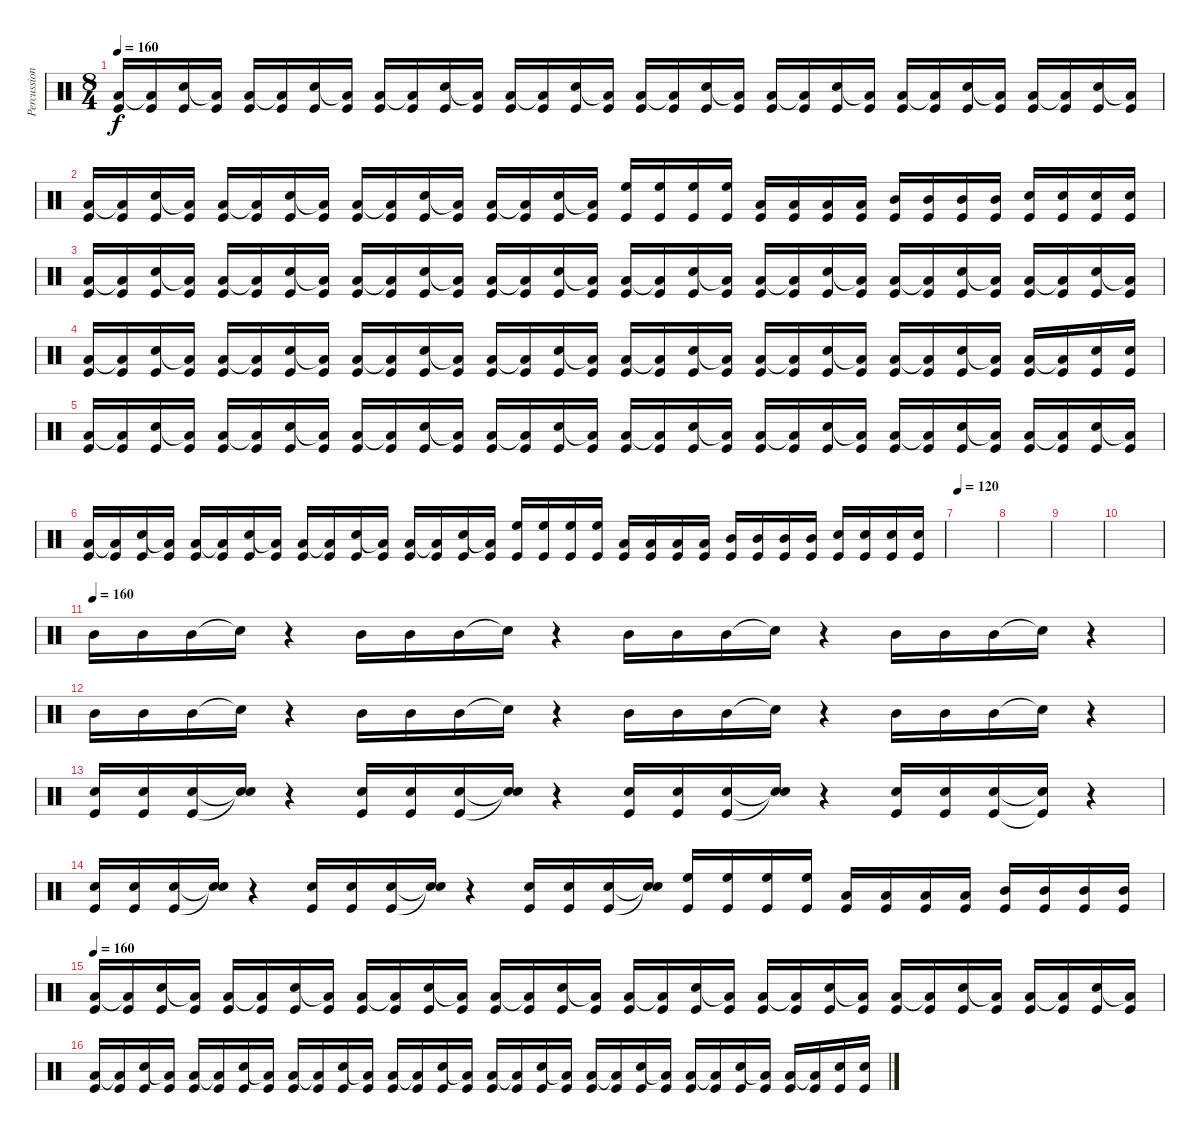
\track ("Percussioni" "Percussion") {instrument percussion}
\staff {score}
\articulation defaults
\ts (8 4)
\tempo 160
\clef neutral
\ks c
("Low Tom (hit)" "Kick (hit)").16{dy f} ("Low Tom (hit)"{t} "Kick (hit)").16 ("Snare (hit) 2" "Kick (hit)").16 ("Low Tom (hit)"{t} "Kick (hit)").16 ("Low Tom (hit)" "Kick (hit)").16 ("Low Tom (hit)"{t} "Kick (hit)").16 ("Snare (hit) 2" "Kick (hit)").16 ("Low Tom (hit)"{t} "Kick (hit)").16 ("Low Tom (hit)" "Kick (hit)").16 ("Low Tom (hit)"{t} "Kick (hit)").16 ("Snare (hit) 2" "Kick (hit)").16 ("Low Tom (hit)"{t} "Kick (hit)").16 ("Low Tom (hit)" "Kick (hit)").16 ("Low Tom (hit)"{t} "Kick (hit)").16 ("Snare (hit) 2" "Kick (hit)").16 ("Low Tom (hit)"{t} "Kick (hit)").16 ("Low Tom (hit)" "Kick (hit)").16 ("Low Tom (hit)"{t} "Kick (hit)").16 ("Snare (hit) 2" "Kick (hit)").16 ("Low Tom (hit)"{t} "Kick (hit)").16 ("Low Tom (hit)" "Kick (hit)").16 ("Low Tom (hit)"{t} "Kick (hit)").16 ("Snare (hit) 2" "Kick (hit)").16 ("Low Tom (hit)"{t} "Kick (hit)").16 ("Low Tom (hit)" "Kick (hit)").16 ("Low Tom (hit)"{t} "Kick (hit)").16 ("Snare (hit) 2" "Kick (hit)").16 ("Low Tom (hit)"{t} "Kick (hit)").16 ("Low Tom (hit)" "Kick (hit)").16 ("Low Tom (hit)"{t} "Kick (hit)").16 ("Snare (hit) 2" "Kick (hit)").16 ("Low Tom (hit)"{t} "Kick (hit)").16 |
("Low Tom (hit)" "Kick (hit)").16 ("Low Tom (hit)"{t} "Kick (hit)").16 ("Snare (hit) 2" "Kick (hit)").16 ("Low Tom (hit)"{t} "Kick (hit)").16 ("Low Tom (hit)" "Kick (hit)").16 ("Low Tom (hit)"{t} "Kick (hit)").16 ("Snare (hit) 2" "Kick (hit)").16 ("Low Tom (hit)"{t} "Kick (hit)").16 ("Low Tom (hit)" "Kick (hit)").16 ("Low Tom (hit)"{t} "Kick (hit)").16 ("Snare (hit) 2" "Kick (hit)").16 ("Low Tom (hit)"{t} "Kick (hit)").16 ("Low Tom (hit)" "Kick (hit)").16 ("Low Tom (hit)"{t} "Kick (hit)").16 ("Snare (hit) 2" "Kick (hit)").16 ("Low Tom (hit)"{t} "Kick (hit)").16 ("High Floor Tom (hit)" "Kick (hit)").16 ("High Floor Tom (hit)" "Kick (hit)").16 ("High Floor Tom (hit)" "Kick (hit)").16 ("High Floor Tom (hit)" "Kick (hit)").16 ("Low Tom (hit)" "Kick (hit)").16 ("Low Tom (hit)" "Kick (hit)").16 ("Low Tom (hit)" "Kick (hit)").16 ("Low Tom (hit)" "Kick (hit)").16 ("Mid Tom (hit)" "Kick (hit)").16 ("Mid Tom (hit)" "Kick (hit)").16 ("Mid Tom (hit)" "Kick (hit)").16 ("Mid Tom (hit)" "Kick (hit)").16 ("Snare (hit) 2" "Kick (hit)").16 ("Snare (hit) 2" "Kick (hit)").16 ("Snare (hit) 2" "Kick (hit)").16 ("Snare (hit) 2" "Kick (hit)").16 |
("Low Tom (hit)" "Kick (hit)").16 ("Low Tom (hit)"{t} "Kick (hit)").16 ("Snare (hit) 2" "Kick (hit)").16 ("Low Tom (hit)"{t} "Kick (hit)").16 ("Low Tom (hit)" "Kick (hit)").16 ("Low Tom (hit)"{t} "Kick (hit)").16 ("Snare (hit) 2" "Kick (hit)").16 ("Low Tom (hit)"{t} "Kick (hit)").16 ("Low Tom (hit)" "Kick (hit)").16 ("Low Tom (hit)"{t} "Kick (hit)").16 ("Snare (hit) 2" "Kick (hit)").16 ("Low Tom (hit)"{t} "Kick (hit)").16 ("Low Tom (hit)" "Kick (hit)").16 ("Low Tom (hit)"{t} "Kick (hit)").16 ("Snare (hit) 2" "Kick (hit)").16 ("Low Tom (hit)"{t} "Kick (hit)").16 ("Low Tom (hit)" "Kick (hit)").16 ("Low Tom (hit)"{t} "Kick (hit)").16 ("Snare (hit) 2" "Kick (hit)").16 ("Low Tom (hit)"{t} "Kick (hit)").16 ("Low Tom (hit)" "Kick (hit)").16 ("Low Tom (hit)"{t} "Kick (hit)").16 ("Snare (hit) 2" "Kick (hit)").16 ("Low Tom (hit)"{t} "Kick (hit)").16 ("Low Tom (hit)" "Kick (hit)").16 ("Low Tom (hit)"{t} "Kick (hit)").16 ("Snare (hit) 2" "Kick (hit)").16 ("Low Tom (hit)"{t} "Kick (hit)").16 ("Low Tom (hit)" "Kick (hit)").16 ("Low Tom (hit)"{t} "Kick (hit)").16 ("Snare (hit) 2" "Kick (hit)").16 ("Low Tom (hit)"{t} "Kick (hit)").16 |
("Low Tom (hit)" "Kick (hit)").16 ("Low Tom (hit)"{t} "Kick (hit)").16 ("Snare (hit) 2" "Kick (hit)").16 ("Low Tom (hit)"{t} "Kick (hit)").16 ("Low Tom (hit)" "Kick (hit)").16 ("Low Tom (hit)"{t} "Kick (hit)").16 ("Snare (hit) 2" "Kick (hit)").16 ("Low Tom (hit)"{t} "Kick (hit)").16 ("Low Tom (hit)" "Kick (hit)").16 ("Low Tom (hit)"{t} "Kick (hit)").16 ("Snare (hit) 2" "Kick (hit)").16 ("Low Tom (hit)"{t} "Kick (hit)").16 ("Low Tom (hit)" "Kick (hit)").16 ("Low Tom (hit)"{t} "Kick (hit)").16 ("Snare (hit) 2" "Kick (hit)").16 ("Low Tom (hit)"{t} "Kick (hit)").16 ("Low Tom (hit)" "Kick (hit)").16 ("Low Tom (hit)"{t} "Kick (hit)").16 ("Snare (hit) 2" "Kick (hit)").16 ("Low Tom (hit)"{t} "Kick (hit)").16 ("Low Tom (hit)" "Kick (hit)").16 ("Low Tom (hit)"{t} "Kick (hit)").16 ("Snare (hit) 2" "Kick (hit)").16 ("Low Tom (hit)"{t} "Kick (hit)").16 ("Low Tom (hit)" "Kick (hit)").16 ("Low Tom (hit)"{t} "Kick (hit)").16 ("Snare (hit) 2" "Kick (hit)").16 ("Low Tom (hit)"{t} "Kick (hit)").16 ("Low Tom (hit)" "Kick (hit)").16 ("Low Tom (hit)"{t} "Kick (hit)").16 ("Snare (hit) 2" "Kick (hit)").16 ("Snare (hit) 2" "Kick (hit)").16 |
("Low Tom (hit)" "Kick (hit)").16 ("Low Tom (hit)"{t} "Kick (hit)").16 ("Snare (hit) 2" "Kick (hit)").16 ("Low Tom (hit)"{t} "Kick (hit)").16 ("Low Tom (hit)" "Kick (hit)").16 ("Low Tom (hit)"{t} "Kick (hit)").16 ("Snare (hit) 2" "Kick (hit)").16 ("Low Tom (hit)"{t} "Kick (hit)").16 ("Low Tom (hit)" "Kick (hit)").16 ("Low Tom (hit)"{t} "Kick (hit)").16 ("Snare (hit) 2" "Kick (hit)").16 ("Low Tom (hit)"{t} "Kick (hit)").16 ("Low Tom (hit)" "Kick (hit)").16 ("Low Tom (hit)"{t} "Kick (hit)").16 ("Snare (hit) 2" "Kick (hit)").16 ("Low Tom (hit)"{t} "Kick (hit)").16 ("Low Tom (hit)" "Kick (hit)").16 ("Low Tom (hit)"{t} "Kick (hit)").16 ("Snare (hit) 2" "Kick (hit)").16 ("Low Tom (hit)"{t} "Kick (hit)").16 ("Low Tom (hit)" "Kick (hit)").16 ("Low Tom (hit)"{t} "Kick (hit)").16 ("Snare (hit) 2" "Kick (hit)").16 ("Low Tom (hit)"{t} "Kick (hit)").16 ("Low Tom (hit)" "Kick (hit)").16 ("Low Tom (hit)"{t} "Kick (hit)").16 ("Snare (hit) 2" "Kick (hit)").16 ("Low Tom (hit)"{t} "Kick (hit)").16 ("Low Tom (hit)" "Kick (hit)").16 ("Low Tom (hit)"{t} "Kick (hit)").16 ("Snare (hit) 2" "Kick (hit)").16 ("Low Tom (hit)"{t} "Kick (hit)").16 |
("Low Tom (hit)" "Kick (hit)").16 ("Low Tom (hit)"{t} "Kick (hit)").16 ("Snare (hit) 2" "Kick (hit)").16 ("Low Tom (hit)"{t} "Kick (hit)").16 ("Low Tom (hit)" "Kick (hit)").16 ("Low Tom (hit)"{t} "Kick (hit)").16 ("Snare (hit) 2" "Kick (hit)").16 ("Low Tom (hit)"{t} "Kick (hit)").16 ("Low Tom (hit)" "Kick (hit)").16 ("Low Tom (hit)"{t} "Kick (hit)").16 ("Snare (hit) 2" "Kick (hit)").16 ("Low Tom (hit)"{t} "Kick (hit)").16 ("Low Tom (hit)" "Kick (hit)").16 ("Low Tom (hit)"{t} "Kick (hit)").16 ("Snare (hit) 2" "Kick (hit)").16 ("Low Tom (hit)"{t} "Kick (hit)").16 ("High Floor Tom (hit)" "Kick (hit)").16 ("High Floor Tom (hit)" "Kick (hit)").16 ("High Floor Tom (hit)" "Kick (hit)").16 ("High Floor Tom (hit)" "Kick (hit)").16 ("Low Tom (hit)" "Kick (hit)").16 ("Low Tom (hit)" "Kick (hit)").16 ("Low Tom (hit)" "Kick (hit)").16 ("Low Tom (hit)" "Kick (hit)").16 ("Mid Tom (hit)" "Kick (hit)").16 ("Mid Tom (hit)" "Kick (hit)").16 ("Mid Tom (hit)" "Kick (hit)").16 ("Mid Tom (hit)" "Kick (hit)").16 ("Snare (hit) 2" "Kick (hit)").16 ("Snare (hit) 2" "Kick (hit)").16 ("Snare (hit) 2" "Kick (hit)").16 ("Snare (hit) 2" "Kick (hit)").16 |
\tempo 120
|
|
|
|
\tempo (160)
"Mid Tom (hit)".16 "Mid Tom (hit)".16 "Mid Tom (hit)".16 "Snare (hit)"{t}.16 r.4 "Mid Tom (hit)".16 "Mid Tom (hit)".16 "Mid Tom (hit)".16 "Snare (hit)"{t}.16 r.4 "Mid Tom (hit)".16 "Mid Tom (hit)".16 "Mid Tom (hit)".16 "Snare (hit)"{t}.16 r.4 "Mid Tom (hit)".16 "Mid Tom (hit)".16 "Mid Tom (hit)".16 "Snare (hit)"{t}.16 r.4 |
"Mid Tom (hit)".16 "Mid Tom (hit)".16 "Mid Tom (hit)".16 "Snare (hit)"{t}.16 r.4 "Mid Tom (hit)".16 "Mid Tom (hit)".16 "Mid Tom (hit)".16 "Snare (hit)"{t}.16 r.4 "Mid Tom (hit)".16 "Mid Tom (hit)".16 "Mid Tom (hit)".16 "Snare (hit)"{t}.16 r.4 "Mid Tom (hit)".16 "Mid Tom (hit)".16 "Mid Tom (hit)".16 "Snare (hit)"{t}.16 r.4 |
("Snare (hit) 2" "Kick (hit)").16 ("Snare (hit) 2" "Kick (hit)").16 ("Snare (hit) 2" "Kick (hit)").16 ("Snare (hit)"{t} "Snare (hit)"{t}).16 r.4 ("Snare (hit) 2" "Kick (hit)").16 ("Snare (hit) 2" "Kick (hit)").16 ("Snare (hit) 2" "Kick (hit)").16 ("Snare (hit)"{t} "Snare (hit)"{t}).16 r.4 ("Snare (hit) 2" "Kick (hit)").16 ("Snare (hit) 2" "Kick (hit)").16 ("Snare (hit) 2" "Kick (hit)").16 ("Snare (hit)"{t} "Snare (hit)"{t}).16 r.4 ("Snare (hit) 2" "Kick (hit)").16 ("Snare (hit) 2" "Kick (hit)").16 ("Snare (hit) 2" "Kick (hit)").16 ("Snare (hit)"{t} "Kick (hit)"{t}).16 r.4 |
("Snare (hit) 2" "Kick (hit)").16 ("Snare (hit) 2" "Kick (hit)").16 ("Snare (hit) 2" "Kick (hit)").16 ("Snare (hit)"{t} "Snare (hit)"{t}).16 r.4 ("Snare (hit) 2" "Kick (hit)").16 ("Snare (hit) 2" "Kick (hit)").16 ("Snare (hit) 2" "Kick (hit)").16 ("Snare (hit)"{t} "Snare (hit)"{t}).16 r.4 ("Snare (hit) 2" "Kick (hit)").16 ("Snare (hit) 2" "Kick (hit)").16 ("Snare (hit) 2" "Kick (hit)").16 ("Snare (hit)"{t} "Snare (hit)"{t}).16 ("High Floor Tom (hit)" "Kick (hit)").16 ("High Floor Tom (hit)" "Kick (hit)").16 ("High Floor Tom (hit)" "Kick (hit)").16 ("High Floor Tom (hit)" "Kick (hit)").16 ("Low Tom (hit)" "Kick (hit)").16 ("Low Tom (hit)" "Kick (hit)").16 ("Low Tom (hit)" "Kick (hit)").16 ("Low Tom (hit)" "Kick (hit)").16 ("Mid Tom (hit)" "Kick (hit)").16 ("Mid Tom (hit)" "Kick (hit)").16 ("Mid Tom (hit)" "Kick (hit)").16 ("Mid Tom (hit)" "Kick (hit)").16 |
\tempo 160
("Low Tom (hit)" "Kick (hit)").16 ("Low Tom (hit)"{t} "Kick (hit)").16 ("Snare (hit) 2" "Kick (hit)").16 ("Low Tom (hit)"{t} "Kick (hit)").16 ("Low Tom (hit)" "Kick (hit)").16 ("Low Tom (hit)"{t} "Kick (hit)").16 ("Snare (hit) 2" "Kick (hit)").16 ("Low Tom (hit)"{t} "Kick (hit)").16 ("Low Tom (hit)" "Kick (hit)").16 ("Low Tom (hit)"{t} "Kick (hit)").16 ("Snare (hit) 2" "Kick (hit)").16 ("Low Tom (hit)"{t} "Kick (hit)").16 ("Low Tom (hit)" "Kick (hit)").16 ("Low Tom (hit)"{t} "Kick (hit)").16 ("Snare (hit) 2" "Kick (hit)").16 ("Low Tom (hit)"{t} "Kick (hit)").16 ("Low Tom (hit)" "Kick (hit)").16 ("Low Tom (hit)"{t} "Kick (hit)").16 ("Snare (hit) 2" "Kick (hit)").16 ("Low Tom (hit)"{t} "Kick (hit)").16 ("Low Tom (hit)" "Kick (hit)").16 ("Low Tom (hit)"{t} "Kick (hit)").16 ("Snare (hit) 2" "Kick (hit)").16 ("Low Tom (hit)"{t} "Kick (hit)").16 ("Low Tom (hit)" "Kick (hit)").16 ("Low Tom (hit)"{t} "Kick (hit)").16 ("Snare (hit) 2" "Kick (hit)").16 ("Low Tom (hit)"{t} "Kick (hit)").16 ("Low Tom (hit)" "Kick (hit)").16 ("Low Tom (hit)"{t} "Kick (hit)").16 ("Snare (hit) 2" "Kick (hit)").16 ("Low Tom (hit)"{t} "Kick (hit)").16 |
("Low Tom (hit)" "Kick (hit)").16 ("Low Tom (hit)"{t} "Kick (hit)").16 ("Snare (hit) 2" "Kick (hit)").16 ("Low Tom (hit)"{t} "Kick (hit)").16 ("Low Tom (hit)" "Kick (hit)").16 ("Low Tom (hit)"{t} "Kick (hit)").16 ("Snare (hit) 2" "Kick (hit)").16 ("Low Tom (hit)"{t} "Kick (hit)").16 ("Low Tom (hit)" "Kick (hit)").16 ("Low Tom (hit)"{t} "Kick (hit)").16 ("Snare (hit) 2" "Kick (hit)").16 ("Low Tom (hit)"{t} "Kick (hit)").16 ("Low Tom (hit)" "Kick (hit)").16 ("Low Tom (hit)"{t} "Kick (hit)").16 ("Snare (hit) 2" "Kick (hit)").16 ("Low Tom (hit)"{t} "Kick (hit)").16 ("Low Tom (hit)" "Kick (hit)").16 ("Low Tom (hit)"{t} "Kick (hit)").16 ("Snare (hit) 2" "Kick (hit)").16 ("Low Tom (hit)"{t} "Kick (hit)").16 ("Low Tom (hit)" "Kick (hit)").16 ("Low Tom (hit)"{t} "Kick (hit)").16 ("Snare (hit) 2" "Kick (hit)").16 ("Low Tom (hit)"{t} "Kick (hit)").16 ("Low Tom (hit)" "Kick (hit)").16 ("Low Tom (hit)"{t} "Kick (hit)").16 ("Snare (hit) 2" "Kick (hit)").16 ("Low Tom (hit)"{t} "Kick (hit)").16 ("Low Tom (hit)" "Kick (hit)").16 ("Low Tom (hit)"{t} "Kick (hit)").16 ("Snare (hit) 2" "Kick (hit)").16 ("Snare (hit) 2" "Kick (hit)").16
